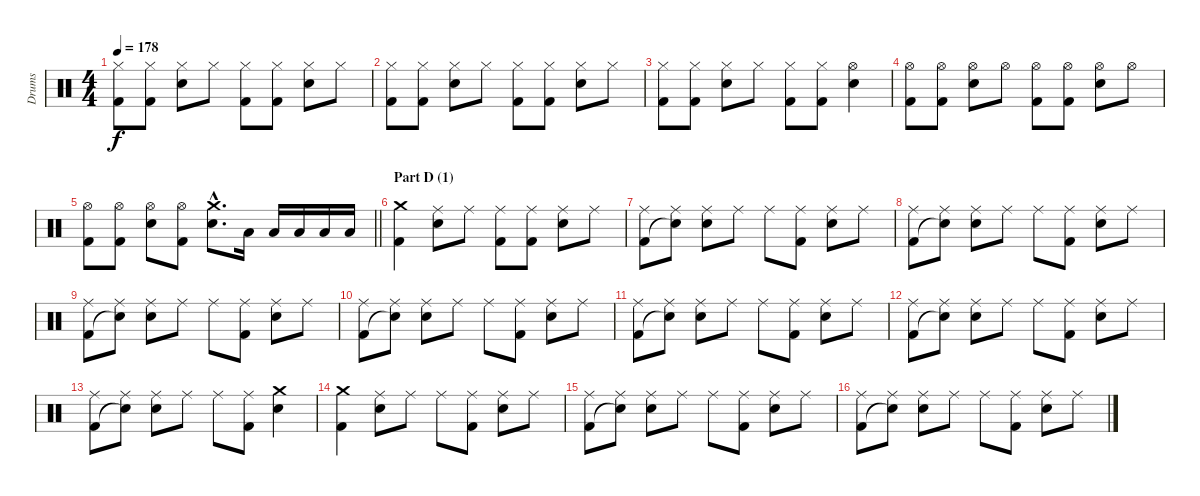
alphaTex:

\track ("Drums" "Drums") {instrument percussion}
\staff {score}
\articulation defaults
\ts (4 4)
\tempo 178
\clef neutral
\ks c
("Hi-Hat (closed)" "Kick (hit) 2").8{dy f} ("Hi-Hat (closed)" "Kick (hit) 2").8 ("Hi-Hat (closed)" "Electric Snare (hit)").8 "Hi-Hat (closed)".8 ("Hi-Hat (closed)" "Kick (hit) 2").8 ("Hi-Hat (closed)" "Kick (hit) 2").8 ("Hi-Hat (closed)" "Electric Snare (hit)").8 "Hi-Hat (closed)".8 |
("Hi-Hat (closed)" "Kick (hit) 2").8 ("Hi-Hat (closed)" "Kick (hit) 2").8 ("Hi-Hat (closed)" "Electric Snare (hit)").8 "Hi-Hat (closed)".8 ("Hi-Hat (closed)" "Kick (hit) 2").8 ("Hi-Hat (closed)" "Kick (hit) 2").8 ("Hi-Hat (closed)" "Electric Snare (hit)").8 "Hi-Hat (closed)".8 |
("Hi-Hat (closed)" "Kick (hit) 2").8 ("Hi-Hat (closed)" "Kick (hit) 2").8 ("Hi-Hat (closed)" "Electric Snare (hit)").8 "Hi-Hat (closed)".8 ("Hi-Hat (closed)" "Kick (hit) 2").8 ("Hi-Hat (closed)" "Kick (hit) 2").8 ("Hi-Hat (open)" "Electric Snare (hit)").4 |
("Hi-Hat (open)" "Kick (hit) 2").8 ("Hi-Hat (open)" "Kick (hit) 2").8 ("Hi-Hat (open)" "Electric Snare (hit)").8 "Hi-Hat (open)".8 ("Hi-Hat (open)" "Kick (hit) 2").8 ("Hi-Hat (open)" "Kick (hit) 2").8 ("Hi-Hat (open)" "Electric Snare (hit)").8 "Hi-Hat (open)".8 |
\barLineRight lightlight
("Hi-Hat (open)" "Kick (hit) 2").8 ("Hi-Hat (open)" "Kick (hit) 2").8 ("Hi-Hat (open)" "Electric Snare (hit)").8 ("Hi-Hat (open)" "Kick (hit) 2").8 ("Crash medium (hit)"{hac} "Electric Snare (hit)"{hac}).8{d} "Low Tom (hit)".16 "Low Tom (hit)".16 "Low Tom (hit)".16 "Low Tom (hit)".16 "Low Tom (hit)".16 |
\section ("" "Part D (1)")
("Crash medium (hit)" "Kick (hit) 2").4 ("Ride (middle)" "Electric Snare (hit)").8 "Ride (middle)".8 ("Ride (middle)" "Kick (hit) 2").8 ("Ride (middle)" "Kick (hit) 2").8 ("Ride (middle)" "Electric Snare (hit)").8 "Ride (middle)".8 |
("Ride (middle)" "Kick (hit) 2").8 ("Ride (middle)" "Snare (hit)"{t}).8 ("Ride (middle)" "Electric Snare (hit)").8 "Ride (middle)".8 "Ride (middle)".8 ("Ride (middle)" "Kick (hit) 2").8 ("Ride (middle)" "Electric Snare (hit)").8 "Ride (middle)".8 |
("Ride (middle)" "Kick (hit) 2").8 ("Ride (middle)" "Snare (hit)"{t}).8 ("Ride (middle)" "Electric Snare (hit)").8 "Ride (middle)".8 "Ride (middle)".8 ("Ride (middle)" "Kick (hit) 2").8 ("Ride (middle)" "Electric Snare (hit)").8 "Ride (middle)".8 |
("Ride (middle)" "Kick (hit) 2").8 ("Ride (middle)" "Snare (hit)"{t}).8 ("Ride (middle)" "Electric Snare (hit)").8 "Ride (middle)".8 "Ride (middle)".8 ("Ride (middle)" "Kick (hit) 2").8 ("Ride (middle)" "Electric Snare (hit)").8 "Ride (middle)".8 |
("Ride (middle)" "Kick (hit) 2").8 ("Ride (middle)" "Snare (hit)"{t}).8 ("Ride (middle)" "Electric Snare (hit)").8 "Ride (middle)".8 "Ride (middle)".8 ("Ride (middle)" "Kick (hit) 2").8 ("Ride (middle)" "Electric Snare (hit)").8 "Ride (middle)".8 |
("Ride (middle)" "Kick (hit) 2").8 ("Ride (middle)" "Snare (hit)"{t}).8 ("Ride (middle)" "Electric Snare (hit)").8 "Ride (middle)".8 "Ride (middle)".8 ("Ride (middle)" "Kick (hit) 2").8 ("Ride (middle)" "Electric Snare (hit)").8 "Ride (middle)".8 |
("Ride (middle)" "Kick (hit) 2").8 ("Ride (middle)" "Snare (hit)"{t}).8 ("Ride (middle)" "Electric Snare (hit)").8 "Ride (middle)".8 "Ride (middle)".8 ("Ride (middle)" "Kick (hit) 2").8 ("Ride (middle)" "Electric Snare (hit)").8 "Ride (middle)".8 |
("Ride (middle)" "Kick (hit) 2").8 ("Ride (middle)" "Snare (hit)"{t}).8 ("Ride (middle)" "Electric Snare (hit)").8 "Ride (middle)".8 "Ride (middle)".8 ("Ride (middle)" "Kick (hit) 2").8 ("Crash medium (hit)" "Electric Snare (hit)").4 |
("Crash medium (hit)" "Kick (hit) 2").4 ("Ride (middle)" "Electric Snare (hit)").8 "Ride (middle)".8 "Ride (middle)".8 ("Ride (middle)" "Kick (hit) 2").8 ("Ride (middle)" "Electric Snare (hit)").8 "Ride (middle)".8 |
("Ride (middle)" "Kick (hit) 2").8 ("Ride (middle)" "Snare (hit)"{t}).8 ("Ride (middle)" "Electric Snare (hit)").8 "Ride (middle)".8 "Ride (middle)".8 ("Ride (middle)" "Kick (hit) 2").8 ("Ride (middle)" "Electric Snare (hit)").8 "Ride (middle)".8 |
("Ride (middle)" "Kick (hit) 2").8 ("Ride (middle)" "Snare (hit)"{t}).8 ("Ride (middle)" "Electric Snare (hit)").8 "Ride (middle)".8 "Ride (middle)".8 ("Ride (middle)" "Kick (hit) 2").8 ("Ride (middle)" "Electric Snare (hit)").8 "Ride (middle)".8
